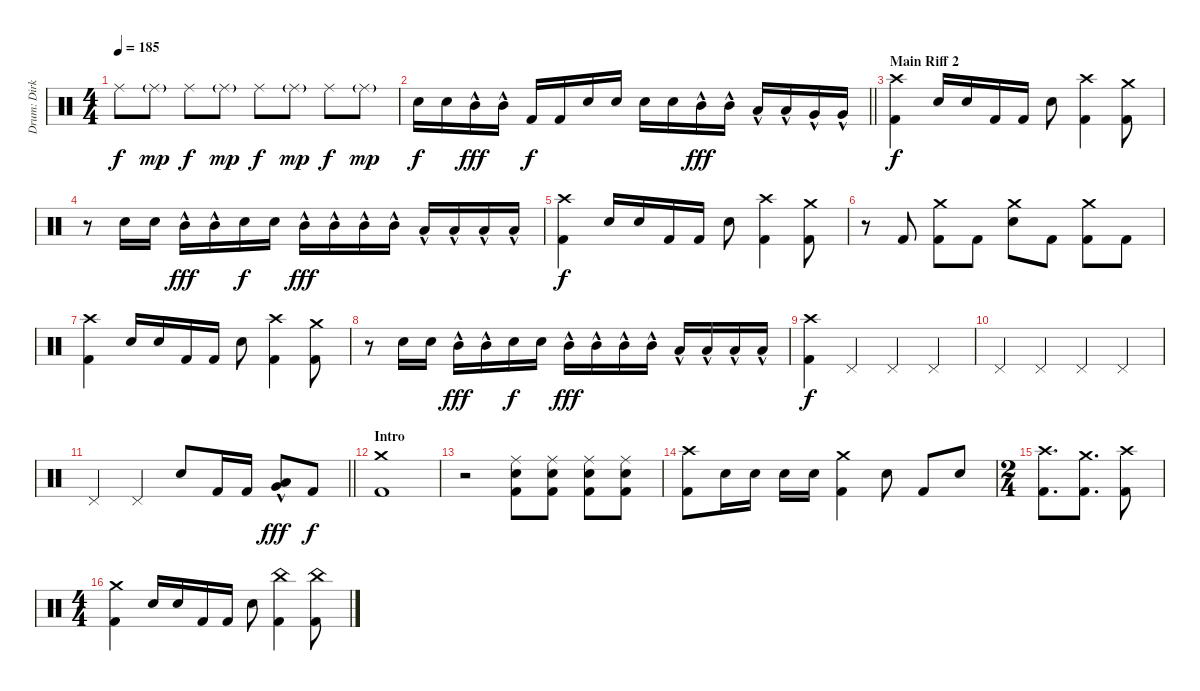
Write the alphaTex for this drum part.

\track ("Drum: Dirk" "Drum: Dirk") {instrument percussion}
\staff {score}
\articulation defaults
\ts (4 4)
\tempo 185
\clef neutral
\ks c "Ride (middle)".8{dy f} "Ride (middle)"{g}.8{dy mp} "Ride (middle)".8{dy f} "Ride (middle)"{g}.8{dy mp} "Ride (middle)".8{dy f} "Ride (middle)"{g}.8{dy mp} "Ride (middle)".8{dy f} "Ride (middle)"{g}.8{dy mp}
|
\barLineRight lightlight "Electric Snare (hit)".16{dy f} "Electric Snare (hit)".16 "Mid Tom (hit)"{hac}.16{dy fff} "Mid Tom (hit)"{hac}.16 "Kick (hit) 2".16{dy f} "Kick (hit) 2".16 "Electric Snare (hit)".16 "Electric Snare (hit)".16 "Electric Snare (hit)".16 "Electric Snare (hit)".16 "Mid Tom (hit)"{hac}.16{dy fff} "Mid Tom (hit)"{hac}.16 "Low Tom (hit)"{hac}.16 "Low Tom (hit)"{hac}.16 "Very Low Tom (hit)"{hac}.16 "Very Low Tom (hit)"{hac}.16
|
\section ("" "Main Riff 2")
("Crash high (hit)" "Kick (hit) 2").4{dy f} "Electric Snare (hit)".16 "Electric Snare (hit)".16 "Kick (hit) 2".16 "Kick (hit) 2".16 "Electric Snare (hit)".8 ("Crash high (hit)" "Kick (hit) 2").4 ("Crash medium (hit)" "Kick (hit) 2").8 |
r.8 "Electric Snare (hit)".16 "Electric Snare (hit)".16 "Mid Tom (hit)"{hac}.16{dy fff} "Mid Tom (hit)"{hac}.16 "Electric Snare (hit)".16{dy f} "Electric Snare (hit)".16 "Mid Tom (hit)"{hac}.16{dy fff} "Mid Tom (hit)"{hac}.16 "Mid Tom (hit)"{hac}.16 "Mid Tom (hit)"{hac}.16 "Low Tom (hit)"{hac}.16 "Low Tom (hit)"{hac}.16 "Low Tom (hit)"{hac}.16 "Low Tom (hit)"{hac}.16 |
("Crash high (hit)" "Kick (hit) 2").4{dy f} "Electric Snare (hit)".16 "Electric Snare (hit)".16 "Kick (hit) 2".16 "Kick (hit) 2".16 "Electric Snare (hit)".8 ("Crash high (hit)" "Kick (hit) 2").4 ("Crash medium (hit)" "Kick (hit) 2").8 |
r.8 "Kick (hit) 2".8 ("Crash medium (hit)" "Kick (hit) 2").8 "Kick (hit) 2".8 ("Crash medium (hit)" "Electric Snare (hit)").8 "Kick (hit) 2".8 ("Crash medium (hit)" "Kick (hit) 2").8 "Kick (hit) 2".8 |
("Crash high (hit)" "Kick (hit) 2").4 "Electric Snare (hit)".16 "Electric Snare (hit)".16 "Kick (hit) 2".16 "Kick (hit) 2".16 "Electric Snare (hit)".8 ("Crash high (hit)" "Kick (hit) 2").4 ("Crash medium (hit)" "Kick (hit) 2").8 |
r.8 "Electric Snare (hit)".16 "Electric Snare (hit)".16 "Mid Tom (hit)"{hac}.16{dy fff} "Mid Tom (hit)"{hac}.16 "Electric Snare (hit)".16{dy f} "Electric Snare (hit)".16 "Mid Tom (hit)"{hac}.16{dy fff} "Mid Tom (hit)"{hac}.16 "Mid Tom (hit)"{hac}.16 "Mid Tom (hit)"{hac}.16 "Low Tom (hit)"{hac}.16 "Low Tom (hit)"{hac}.16 "Low Tom (hit)"{hac}.16 "Low Tom (hit)"{hac}.16 |
("Crash high (hit)" "Kick (hit) 2").4{dy f} "Pedal Hi-Hat (hit)".4 "Pedal Hi-Hat (hit)".4 "Pedal Hi-Hat (hit)".4 |
"Pedal Hi-Hat (hit)".4 "Pedal Hi-Hat (hit)".4 "Pedal Hi-Hat (hit)".4 "Pedal Hi-Hat (hit)".4 |
\barLineRight lightlight "Pedal Hi-Hat (hit)".4 "Pedal Hi-Hat (hit)".4 "Electric Snare (hit)".8 "Kick (hit) 2".16 "Kick (hit) 2".16
("Low Tom (hit)"{hac} "Very Low Tom (hit)"{hac}).8{dy fff} "Kick (hit) 2".8{dy f} |
\section ("" "Intro")
("Crash medium (hit)" "Kick (hit) 2").1 |
r.2 ("Ride (middle)" "Electric Snare (hit)" "Kick (hit) 2").8 ("Ride (middle)" "Electric Snare (hit)" "Kick (hit) 2").8 ("Ride (middle)" "Electric Snare (hit)" "Kick (hit) 2").8 ("Ride (middle)" "Electric Snare (hit)" "Kick (hit) 2").8 |
("Crash high (hit)" "Kick (hit) 2").8 "Electric Snare (hit)".16 "Electric Snare (hit)".16 "Electric Snare (hit)".16 "Electric Snare (hit)".16 ("Crash medium (hit)" "Kick (hit) 2").4 "Electric Snare (hit)".8 "Kick (hit) 2".8 "Electric Snare (hit)".8 |
\ts (2 4)
("Crash high (hit)" "Kick (hit) 2").8{d} ("Crash medium (hit)" "Kick (hit) 2").8{d} ("Crash high (hit)" "Kick (hit) 2").8 |
\ts (4 4)
("Crash medium (hit)" "Kick (hit) 2").4 "Electric Snare (hit)".16 "Electric Snare (hit)".16 "Kick (hit) 2".16 "Kick (hit) 2".16 "Electric Snare (hit)".8 ("China (hit)" "Kick (hit) 2").4 ("China (hit)" "Kick (hit) 2").8
